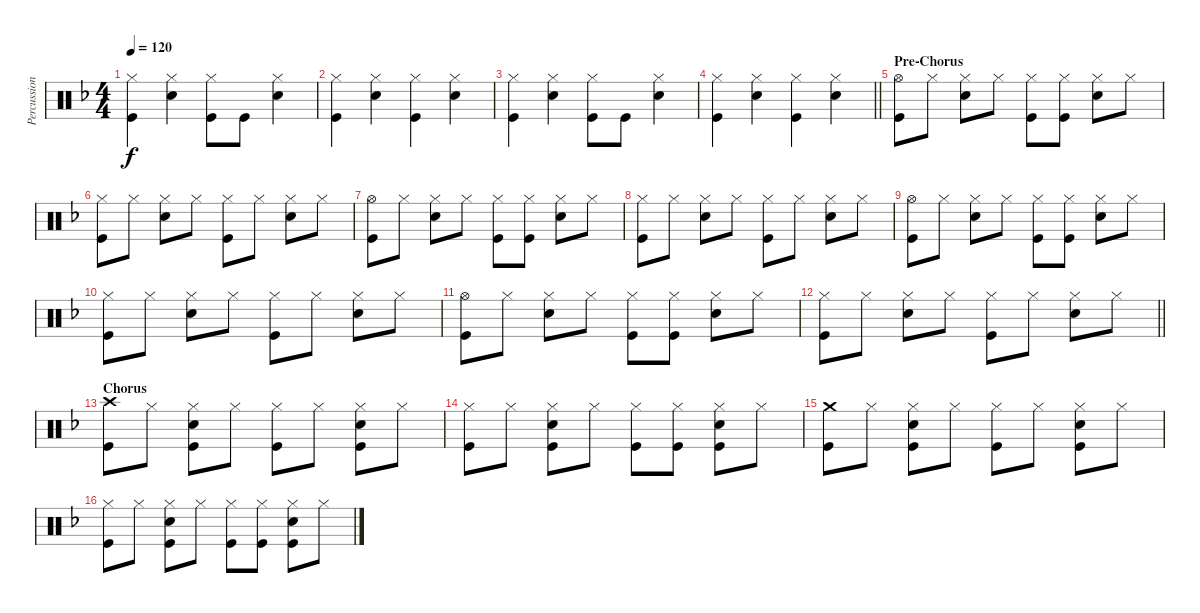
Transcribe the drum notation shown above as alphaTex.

\track ("Percussion" "Percussion") {instrument percussion}
\staff {score}
\articulation defaults
\ts (4 4)
\tempo 120
\clef neutral
\ks f
("Hi-Hat (closed)" "Kick (hit)").4{dy f} ("Hi-Hat (closed)" "Electric Snare (hit)").4 ("Hi-Hat (closed)" "Kick (hit)").8 "Kick (hit)".8 ("Hi-Hat (closed)" "Electric Snare (hit)").4 |
("Hi-Hat (closed)" "Kick (hit)").4 ("Hi-Hat (closed)" "Electric Snare (hit)").4 ("Hi-Hat (closed)" "Kick (hit)").4 ("Hi-Hat (closed)" "Electric Snare (hit)").4 |
("Hi-Hat (closed)" "Kick (hit)").4 ("Hi-Hat (closed)" "Electric Snare (hit)").4 ("Hi-Hat (closed)" "Kick (hit)").8 "Kick (hit)".8 ("Hi-Hat (closed)" "Electric Snare (hit)").4 |
\barLineRight lightlight
("Hi-Hat (closed)" "Kick (hit)").4 ("Hi-Hat (closed)" "Electric Snare (hit)").4 ("Hi-Hat (closed)" "Kick (hit)").4 ("Hi-Hat (closed)" "Electric Snare (hit)").4 |
\section ("" "Pre-Chorus")
("Hi-Hat (open)" "Kick (hit)").8 "Hi-Hat (closed)".8 ("Hi-Hat (closed)" "Electric Snare (hit)").8 "Hi-Hat (closed)".8 ("Hi-Hat (closed)" "Kick (hit)").8 ("Hi-Hat (closed)" "Kick (hit)").8 ("Hi-Hat (closed)" "Electric Snare (hit)").8 "Hi-Hat (closed)".8 |
("Hi-Hat (closed)" "Kick (hit)").8 "Hi-Hat (closed)".8 ("Hi-Hat (closed)" "Electric Snare (hit)").8 "Hi-Hat (closed)".8 ("Hi-Hat (closed)" "Kick (hit)").8 "Hi-Hat (closed)".8 ("Hi-Hat (closed)" "Electric Snare (hit)").8 "Hi-Hat (closed)".8 |
("Hi-Hat (open)" "Kick (hit)").8 "Hi-Hat (closed)".8 ("Hi-Hat (closed)" "Electric Snare (hit)").8 "Hi-Hat (closed)".8 ("Hi-Hat (closed)" "Kick (hit)").8 ("Hi-Hat (closed)" "Kick (hit)").8 ("Hi-Hat (closed)" "Electric Snare (hit)").8 "Hi-Hat (closed)".8 |
("Hi-Hat (closed)" "Kick (hit)").8 "Hi-Hat (closed)".8 ("Hi-Hat (closed)" "Electric Snare (hit)").8 "Hi-Hat (closed)".8 ("Hi-Hat (closed)" "Kick (hit)").8 "Hi-Hat (closed)".8 ("Hi-Hat (closed)" "Electric Snare (hit)").8 "Hi-Hat (closed)".8 |
("Hi-Hat (open)" "Kick (hit)").8 "Hi-Hat (closed)".8 ("Hi-Hat (closed)" "Electric Snare (hit)").8 "Hi-Hat (closed)".8 ("Hi-Hat (closed)" "Kick (hit)").8 ("Hi-Hat (closed)" "Kick (hit)").8 ("Hi-Hat (closed)" "Electric Snare (hit)").8 "Hi-Hat (closed)".8 |
("Hi-Hat (closed)" "Kick (hit)").8 "Hi-Hat (closed)".8 ("Hi-Hat (closed)" "Electric Snare (hit)").8 "Hi-Hat (closed)".8 ("Hi-Hat (closed)" "Kick (hit)").8 "Hi-Hat (closed)".8 ("Hi-Hat (closed)" "Electric Snare (hit)").8 "Hi-Hat (closed)".8 |
("Hi-Hat (open)" "Kick (hit)").8 "Hi-Hat (closed)".8 ("Hi-Hat (closed)" "Electric Snare (hit)").8 "Hi-Hat (closed)".8 ("Hi-Hat (closed)" "Kick (hit)").8 ("Hi-Hat (closed)" "Kick (hit)").8 ("Hi-Hat (closed)" "Electric Snare (hit)").8 "Hi-Hat (closed)".8 |
\barLineRight lightlight
("Hi-Hat (closed)" "Kick (hit)").8 "Hi-Hat (closed)".8 ("Hi-Hat (closed)" "Electric Snare (hit)").8 "Hi-Hat (closed)".8 ("Hi-Hat (closed)" "Kick (hit)").8 "Hi-Hat (closed)".8 ("Hi-Hat (closed)" "Electric Snare (hit)").8 "Hi-Hat (closed)".8 |
\section ("" "Chorus")
("Crash high (hit)" "Kick (hit)").8 "Hi-Hat (closed)".8 ("Hi-Hat (closed)" "Kick (hit)" "Electric Snare (hit)").8 "Hi-Hat (closed)".8 ("Hi-Hat (closed)" "Kick (hit)").8 "Hi-Hat (closed)".8 ("Hi-Hat (closed)" "Kick (hit)" "Electric Snare (hit)").8 "Hi-Hat (closed)".8 |
("Hi-Hat (closed)" "Kick (hit)").8 "Hi-Hat (closed)".8 ("Hi-Hat (closed)" "Kick (hit)" "Electric Snare (hit)").8 "Hi-Hat (closed)".8 ("Hi-Hat (closed)" "Kick (hit)").8 ("Hi-Hat (closed)" "Kick (hit)").8 ("Hi-Hat (closed)" "Kick (hit)" "Electric Snare (hit)").8 "Hi-Hat (closed)".8 |
("Crash medium (hit)" "Kick (hit)").8 "Hi-Hat (closed)".8 ("Hi-Hat (closed)" "Kick (hit)" "Electric Snare (hit)").8 "Hi-Hat (closed)".8 ("Hi-Hat (closed)" "Kick (hit)").8 "Hi-Hat (closed)".8 ("Hi-Hat (closed)" "Kick (hit)" "Electric Snare (hit)").8 "Hi-Hat (closed)".8 |
("Hi-Hat (closed)" "Kick (hit)").8 "Hi-Hat (closed)".8 ("Hi-Hat (closed)" "Kick (hit)" "Electric Snare (hit)").8 "Hi-Hat (closed)".8 ("Hi-Hat (closed)" "Kick (hit)").8 ("Hi-Hat (closed)" "Kick (hit)").8 ("Hi-Hat (closed)" "Kick (hit)" "Electric Snare (hit)").8 "Hi-Hat (closed)".8
